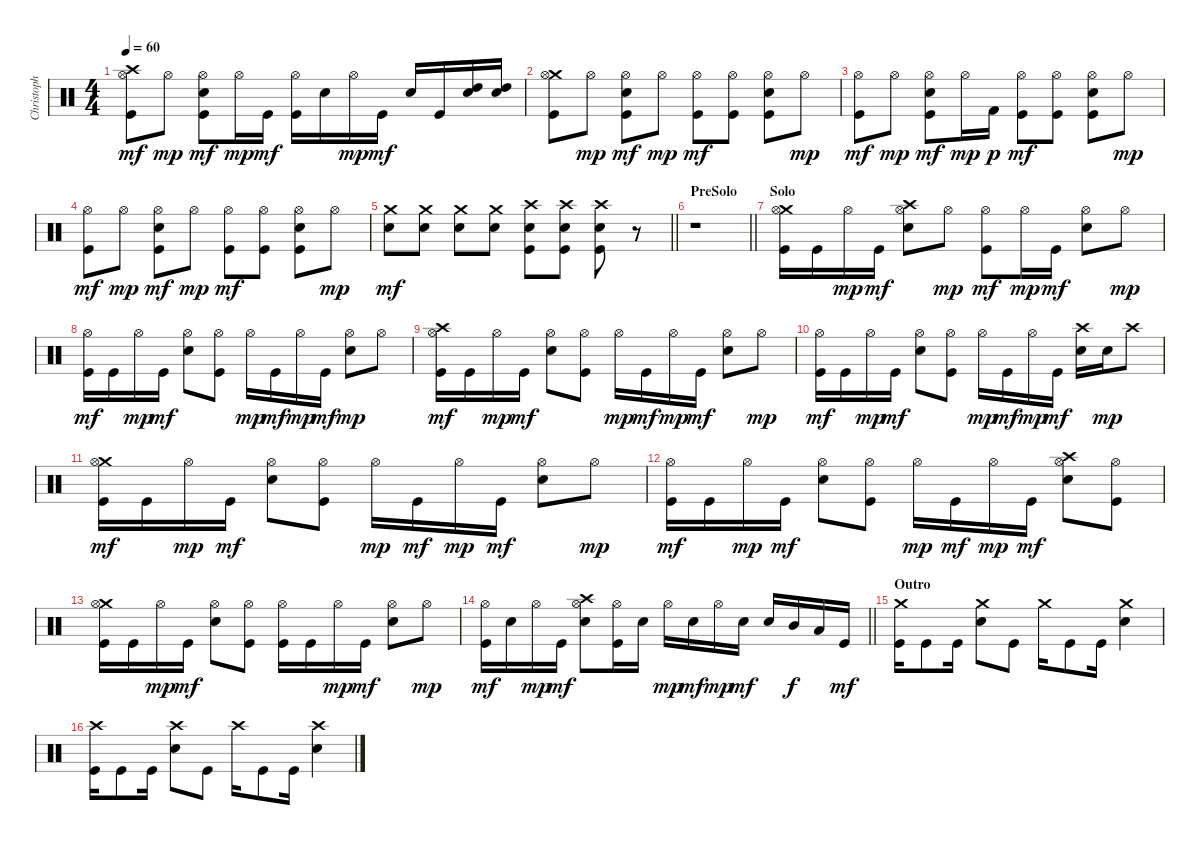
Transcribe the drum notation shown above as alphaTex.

\track ("Christoph Schneider" "Christoph ") {instrument percussion}
\staff {score}
\articulation defaults
\ts (4 4)
\tempo 60
\clef neutral
\ks c
("Crash high (hit)" "Hi-Hat (open)" "Kick (hit)").8{dy mf} "Hi-Hat (open)".8{dy mp} ("Hi-Hat (open)" "Snare (hit) 2" "Kick (hit)").8{dy mf} "Hi-Hat (open)".16{dy mp} "Kick (hit)".16{dy mf} ("Hi-Hat (open)" "Kick (hit)").16 "Snare (hit) 2".16 "Hi-Hat (open)".16{dy mp} "Kick (hit)".16{dy mf} "Snare (hit) 2".16 "Kick (hit)".16 ("Snare (hit) 2" "High Tom (hit)").16{bd 30} ("Snare (hit) 2" "High Tom (hit)").16{bd 30} |
("Crash medium (hit)" "Hi-Hat (open)" "Kick (hit)").8 "Hi-Hat (open)".8{dy mp} ("Hi-Hat (open)" "Snare (hit) 2" "Kick (hit)").8{dy mf} "Hi-Hat (open)".8{dy mp} ("Hi-Hat (open)" "Kick (hit)").8{dy mf} ("Hi-Hat (open)" "Kick (hit)").8 ("Hi-Hat (open)" "Snare (hit) 2" "Kick (hit)").8 "Hi-Hat (open)".8{dy mp} |
("Hi-Hat (open)" "Kick (hit)").8{dy mf} "Hi-Hat (open)".8{dy mp} ("Hi-Hat (open)" "Snare (hit) 2" "Kick (hit)").8{dy mf} "Hi-Hat (open)".16{dy mp} "Kick (hit) 2".16{dy p} ("Hi-Hat (open)" "Kick (hit)").8{dy mf} ("Hi-Hat (open)" "Kick (hit)").8 ("Hi-Hat (open)" "Snare (hit) 2" "Kick (hit)").8 "Hi-Hat (open)".8{dy mp} |
("Hi-Hat (open)" "Kick (hit)").8{dy mf} "Hi-Hat (open)".8{dy mp} ("Hi-Hat (open)" "Snare (hit) 2" "Kick (hit)").8{dy mf} "Hi-Hat (open)".8{dy mp} ("Hi-Hat (open)" "Kick (hit)").8{dy mf} ("Hi-Hat (open)" "Kick (hit)").8 ("Hi-Hat (open)" "Snare (hit) 2" "Kick (hit)").8 "Hi-Hat (open)".8{dy mp} |
\barLineRight lightlight
("Crash medium (hit)" "Snare (hit) 2").8{dy mf} ("Crash medium (hit)" "Snare (hit) 2").8 ("Crash medium (hit)" "Snare (hit) 2").8 ("Crash medium (hit)" "Snare (hit) 2").8 ("Crash high (hit)" "Snare (hit) 2" "Kick (hit)").8 ("Crash high (hit)" "Snare (hit) 2" "Kick (hit)").8 ("Crash high (hit)" "Snare (hit) 2" "Kick (hit)").8 r.8 |
\section ("" "PreSolo")
\barLineRight lightlight
r.1 |
\section ("" "Solo")
("Crash medium (hit)" "Hi-Hat (open)" "Kick (hit)").16 "Kick (hit)".16 "Hi-Hat (open)".16{dy mp} "Kick (hit)".16{dy mf} ("Crash high (hit)" "Hi-Hat (open)" "Snare (hit) 2").8 "Hi-Hat (open)".8{dy mp} ("Hi-Hat (open)" "Kick (hit)").8{dy mf} "Hi-Hat (open)".16{dy mp} "Kick (hit)".16{dy mf} ("Hi-Hat (open)" "Snare (hit) 2").8 "Hi-Hat (open)".8{dy mp} |
("Hi-Hat (open)" "Kick (hit)").16{dy mf} "Kick (hit)".16 "Hi-Hat (open)".16{dy mp} "Kick (hit)".16{dy mf} ("Hi-Hat (open)" "Snare (hit) 2").8 ("Hi-Hat (open)" "Kick (hit)").8 "Hi-Hat (open)".16{dy mp} "Kick (hit)".16{dy mf} "Hi-Hat (open)".16{dy mp} "Kick (hit)".16{dy mf} ("Hi-Hat (open)" "Snare (hit) 2").8{dy mp} "Hi-Hat (open)".8 |
("Crash high (hit)" "Hi-Hat (open)" "Kick (hit)").16{dy mf} "Kick (hit)".16 "Hi-Hat (open)".16{dy mp} "Kick (hit)".16{dy mf} ("Hi-Hat (open)" "Snare (hit) 2").8 ("Hi-Hat (open)" "Kick (hit)").8 "Hi-Hat (open)".16{dy mp} "Kick (hit)".16{dy mf} "Hi-Hat (open)".16{dy mp} "Kick (hit)".16{dy mf} ("Hi-Hat (open)" "Snare (hit) 2").8 "Hi-Hat (open)".8{dy mp} |
("Hi-Hat (open)" "Kick (hit)").16{dy mf} "Kick (hit)".16 "Hi-Hat (open)".16{dy mp} "Kick (hit)".16{dy mf} ("Hi-Hat (open)" "Snare (hit) 2").8 ("Hi-Hat (open)" "Kick (hit)").8 "Hi-Hat (open)".16{dy mp} "Kick (hit)".16{dy mf} "Hi-Hat (open)".16{dy mp} "Kick (hit)".16{dy mf} ("Crash high (hit)" "Snare (hit) 2").16 "Snare (hit) 2".16{dy mp} "Crash high (hit)".8 |
("Crash medium (hit)" "Hi-Hat (open)" "Kick (hit)").16{dy mf} "Kick (hit)".16 "Hi-Hat (open)".16{dy mp} "Kick (hit)".16{dy mf} ("Hi-Hat (open)" "Snare (hit) 2").8 ("Hi-Hat (open)" "Kick (hit)").8 "Hi-Hat (open)".16{dy mp} "Kick (hit)".16{dy mf} "Hi-Hat (open)".16{dy mp} "Kick (hit)".16{dy mf} ("Hi-Hat (open)" "Snare (hit) 2").8 "Hi-Hat (open)".8{dy mp} |
("Hi-Hat (open)" "Kick (hit)").16{dy mf} "Kick (hit)".16 "Hi-Hat (open)".16{dy mp} "Kick (hit)".16{dy mf} ("Hi-Hat (open)" "Snare (hit) 2").8 ("Hi-Hat (open)" "Kick (hit)").8 "Hi-Hat (open)".16{dy mp} "Kick (hit)".16{dy mf} "Hi-Hat (open)".16{dy mp} "Kick (hit)".16{dy mf} ("Crash high (hit)" "Hi-Hat (open)" "Snare (hit) 2").8 ("Hi-Hat (open)" "Kick (hit)").8 |
("Crash medium (hit)" "Hi-Hat (open)" "Kick (hit)").16 "Kick (hit)".16 "Hi-Hat (open)".16{dy mp} "Kick (hit)".16{dy mf} ("Hi-Hat (open)" "Snare (hit) 2").8 ("Hi-Hat (open)" "Kick (hit)").8 ("Hi-Hat (open)" "Kick (hit)").16 "Kick (hit)".16 "Hi-Hat (open)".16{dy mp} "Kick (hit)".16{dy mf} ("Hi-Hat (open)" "Snare (hit) 2").8 "Hi-Hat (open)".8{dy mp} |
\barLineRight lightlight
("Hi-Hat (open)" "Kick (hit)").16{dy mf} "Snare (hit) 2".16 "Hi-Hat (open)".16{dy mp} "Kick (hit)".16{dy mf} ("Crash high (hit)" "Hi-Hat (open)" "Snare (hit) 2").8 ("Hi-Hat (open)" "Kick (hit)").16 "Snare (hit) 2".16 "Hi-Hat (open)".16{dy mp} "Snare (hit) 2".16{dy mf} "Hi-Hat (open)".16{dy mp} "Snare (hit) 2".16{dy mf} "Snare (hit) 2".16 "Mid Tom (hit)".16{dy f} "Low Tom (hit)".16 "Kick (hit)".16{dy mf} |
\section ("" "Outro")
("Crash medium (hit)" "Kick (hit)").16 "Kick (hit)".8 "Kick (hit)".16 ("Crash medium (hit)" "Snare (hit) 2").8 "Kick (hit)".8 "Crash medium (hit)".16 "Kick (hit)".8 "Kick (hit)".16 ("Crash medium (hit)" "Snare (hit) 2").4 |
("Crash high (hit)" "Kick (hit)").16 "Kick (hit)".8 "Kick (hit)".16 ("Crash high (hit)" "Snare (hit) 2").8 "Kick (hit)".8 "Crash high (hit)".16 "Kick (hit)".8 "Kick (hit)".16 ("Crash high (hit)" "Snare (hit) 2").4
